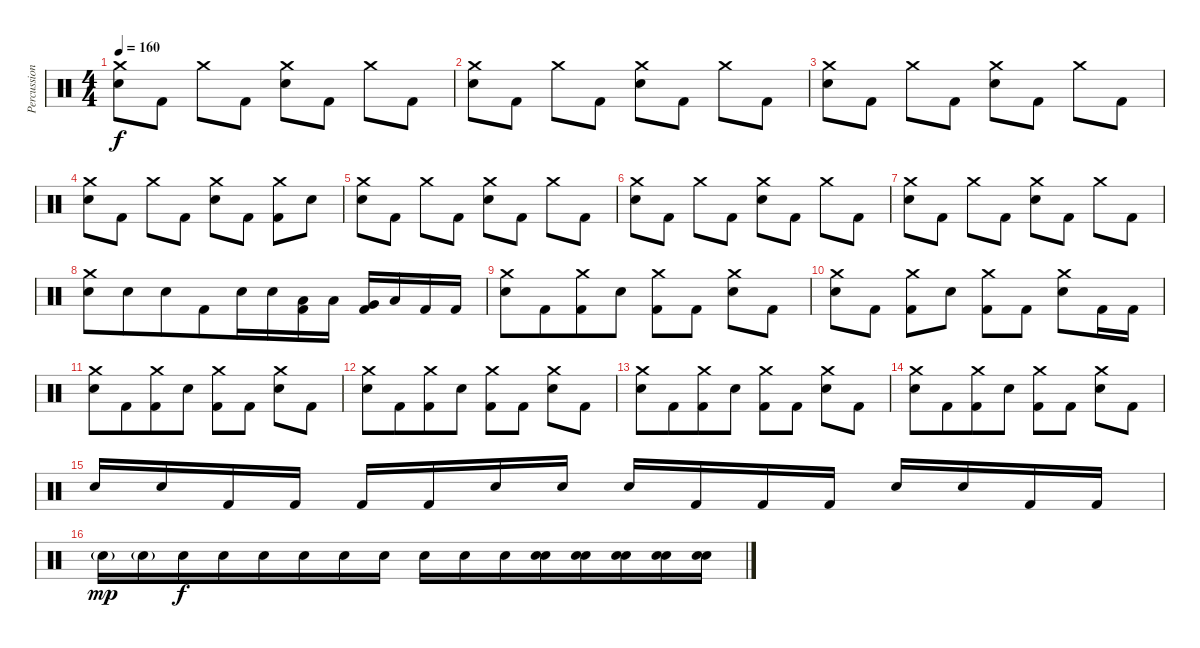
\track ("Percussion" "Percussion") {instrument percussion}
\staff {score}
\articulation defaults
\ts (4 4)
\tempo 160
\clef neutral
\ks c
("Crash medium (hit)" "Electric Snare (hit)").8{dy f beam merge} "Kick (hit) 2".8 "Crash medium (hit)".8 "Kick (hit) 2".8 ("Crash medium (hit)" "Electric Snare (hit)").8 "Kick (hit) 2".8 "Crash medium (hit)".8 "Kick (hit) 2".8 |
("Crash medium (hit)" "Electric Snare (hit)").8{beam merge} "Kick (hit) 2".8 "Crash medium (hit)".8 "Kick (hit) 2".8 ("Crash medium (hit)" "Electric Snare (hit)").8 "Kick (hit) 2".8 "Crash medium (hit)".8 "Kick (hit) 2".8 |
("Crash medium (hit)" "Electric Snare (hit)").8{beam merge} "Kick (hit) 2".8 "Crash medium (hit)".8 "Kick (hit) 2".8 ("Crash medium (hit)" "Electric Snare (hit)").8 "Kick (hit) 2".8 "Crash medium (hit)".8 "Kick (hit) 2".8 |
("Crash medium (hit)" "Electric Snare (hit)").8{beam merge} "Kick (hit) 2".8 "Crash medium (hit)".8 "Kick (hit) 2".8 ("Crash medium (hit)" "Electric Snare (hit)").8 "Kick (hit) 2".8 ("Crash medium (hit)" "Kick (hit) 2").8 "Electric Snare (hit)".8 |
("Crash medium (hit)" "Electric Snare (hit)").8{beam merge} "Kick (hit) 2".8 "Crash medium (hit)".8 "Kick (hit) 2".8 ("Crash medium (hit)" "Electric Snare (hit)").8 "Kick (hit) 2".8 "Crash medium (hit)".8 "Kick (hit) 2".8 |
("Crash medium (hit)" "Electric Snare (hit)").8{beam merge} "Kick (hit) 2".8 "Crash medium (hit)".8 "Kick (hit) 2".8 ("Crash medium (hit)" "Electric Snare (hit)").8 "Kick (hit) 2".8 "Crash medium (hit)".8 "Kick (hit) 2".8 |
("Crash medium (hit)" "Electric Snare (hit)").8{beam merge} "Kick (hit) 2".8 "Crash medium (hit)".8 "Kick (hit) 2".8 ("Crash medium (hit)" "Electric Snare (hit)").8 "Kick (hit) 2".8 "Crash medium (hit)".8 "Kick (hit) 2".8 |
("Crash medium (hit)" "Electric Snare (hit)").8 "Electric Snare (hit)".8{beam merge} "Electric Snare (hit)".8 "Kick (hit) 2".8{beam merge} "Electric Snare (hit)".16 "Electric Snare (hit)".16 ("Low Tom (hit)" "Kick (hit) 2").16 "Low Tom (hit)".16 ("Very Low Tom (hit)" "Kick (hit) 2").16{beam merge} "Low Floor Tom (hit)".16 "Kick (hit) 2".16 "Kick (hit) 2".16 |
("Crash medium (hit)" "Electric Snare (hit)").8{beam merge} "Kick (hit) 2".8{beam merge} ("Crash medium (hit)" "Kick (hit) 2").8{beam merge} "Electric Snare (hit)".8 ("Crash medium (hit)" "Kick (hit) 2").8{beam merge} "Kick (hit) 2".8 ("Crash medium (hit)" "Electric Snare (hit)").8 "Kick (hit) 2".8 |
("Crash medium (hit)" "Electric Snare (hit)").8{beam merge} "Kick (hit) 2".8 ("Crash medium (hit)" "Kick (hit) 2").8{beam merge} "Electric Snare (hit)".8 ("Crash medium (hit)" "Kick (hit) 2").8 "Kick (hit) 2".8 ("Crash medium (hit)" "Electric Snare (hit)").8 "Kick (hit) 2".16 "Kick (hit) 2".16 |
("Crash medium (hit)" "Electric Snare (hit)").8{beam merge} "Kick (hit) 2".8{beam merge} ("Crash medium (hit)" "Kick (hit) 2").8{beam merge} "Electric Snare (hit)".8 ("Crash medium (hit)" "Kick (hit) 2").8{beam merge} "Kick (hit) 2".8 ("Crash medium (hit)" "Electric Snare (hit)").8 "Kick (hit) 2".8 |
("Crash medium (hit)" "Electric Snare (hit)").8{beam merge} "Kick (hit) 2".8{beam merge} ("Crash medium (hit)" "Kick (hit) 2").8{beam merge} "Electric Snare (hit)".8 ("Crash medium (hit)" "Kick (hit) 2").8{beam merge} "Kick (hit) 2".8 ("Crash medium (hit)" "Electric Snare (hit)").8 "Kick (hit) 2".8 |
("Crash medium (hit)" "Electric Snare (hit)").8{beam merge} "Kick (hit) 2".8{beam merge} ("Crash medium (hit)" "Kick (hit) 2").8{beam merge} "Electric Snare (hit)".8 ("Crash medium (hit)" "Kick (hit) 2").8{beam merge} "Kick (hit) 2".8 ("Crash medium (hit)" "Electric Snare (hit)").8 "Kick (hit) 2".8 |
("Crash medium (hit)" "Electric Snare (hit)").8{beam merge} "Kick (hit) 2".8{beam merge} ("Crash medium (hit)" "Kick (hit) 2").8{beam merge} "Electric Snare (hit)".8 ("Crash medium (hit)" "Kick (hit) 2").8{beam merge} "Kick (hit) 2".8 ("Crash medium (hit)" "Electric Snare (hit)").8 "Kick (hit) 2".8 |
"Electric Snare (hit)".16 "Electric Snare (hit)".16 "Kick (hit) 2".16 "Kick (hit) 2".16 "Kick (hit) 2".16 "Kick (hit) 2".16 "Electric Snare (hit)".16{beam merge} "Electric Snare (hit)".16 "Electric Snare (hit)".16{beam merge} "Kick (hit) 2".16 "Kick (hit) 2".16{beam merge} "Kick (hit) 2".16 "Electric Snare (hit)".16 "Electric Snare (hit)".16 "Kick (hit) 2".16 "Kick (hit) 2".16 |
"Electric Snare (hit)"{g}.16{dy mp beam merge} "Electric Snare (hit)"{g}.16{beam merge} "Electric Snare (hit)".16{dy f} "Electric Snare (hit)".16{beam merge} "Electric Snare (hit)".16{beam merge} "Electric Snare (hit)".16 "Electric Snare (hit)".16 "Electric Snare (hit)".16 "Electric Snare (hit)".16 "Electric Snare (hit)".16{beam merge} "Electric Snare (hit)".16{beam merge} ("Electric Snare (hit)" "Electric Snare (hit)").16{beam merge} ("Electric Snare (hit)" "Electric Snare (hit)").16 ("Electric Snare (hit)" "Electric Snare (hit)").16 ("Electric Snare (hit)" "Electric Snare (hit)").16{beam merge} ("Electric Snare (hit)" "Electric Snare (hit)").16
